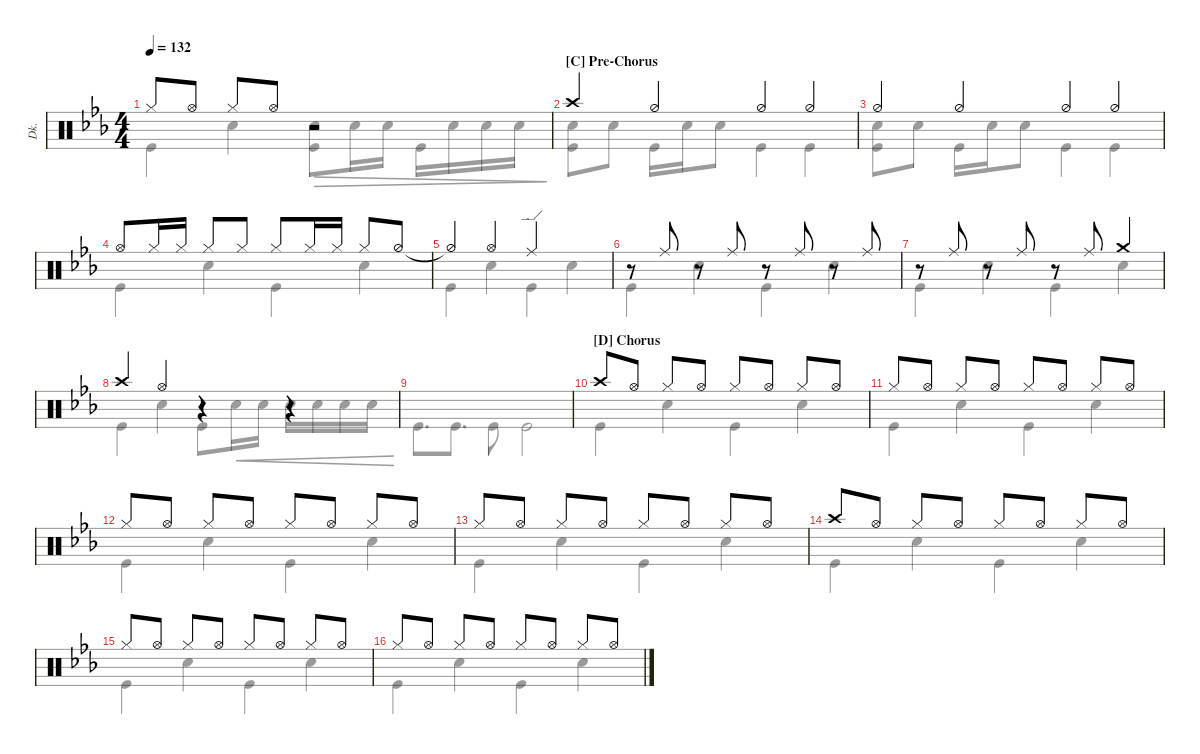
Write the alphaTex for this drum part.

\defaultSystemsLayout 4
\hideDynamics
\bracketExtendMode nobrackets
\otherSystemsTrackNameOrientation horizontal
\track ("Drumkit" "Dk.") {instrument percussion}
\staff {score}
\articulation defaults
\voice
\ts (4 4)
\tempo 132
\clef neutral
\ks eb "Hi-Hat (closed)".8{dy mf} "Hi-Hat (open)".8 "Hi-Hat (closed)".8 "Hi-Hat (open)".8
r.2 |
\section ("C" "Pre-Chorus")
"Crash high (hit)".4{dy f} "Hi-Hat (half)".4{dy mf} "Hi-Hat (half)".4 "Hi-Hat (half)".4 |
"Hi-Hat (half)".4 "Hi-Hat (half)".4 "Hi-Hat (half)".4 "Hi-Hat (half)".4 |
"Hi-Hat (open)".8 "Hi-Hat (closed)".16 "Hi-Hat (closed)".16 "Hi-Hat (closed)".8 "Hi-Hat (closed)".8 "Hi-Hat (closed)".8 "Hi-Hat (closed)".16 "Hi-Hat (closed)".16 "Hi-Hat (closed)".8 "Hi-Hat (half)".8 |
"Hi-Hat (half)"{t}.4 "Hi-Hat (open)".4 "Ride (edge)".2 |
r.8 "Ride (middle)".8{dy f} r.8 "Ride (middle)".8 r.8 "Ride (middle)".8 r.8 "Ride (middle)".8 |
r.8 "Ride (middle)".8 r.8 "Ride (middle)".8 r.8 "Ride (middle)".8 "Crash medium (hit)".4{dy mf} |
"Crash high (hit)".4 "Hi-Hat (open)".4 r.4 r.4 |
|
\section ("D" "Chorus")
"Crash high (hit)".8 "Hi-Hat (open)".8 "Hi-Hat (closed)".8 "Hi-Hat (open)".8 "Hi-Hat (closed)".8 "Hi-Hat (open)".8 "Hi-Hat (closed)".8 "Hi-Hat (open)".8 |
"Hi-Hat (closed)".8 "Hi-Hat (open)".8 "Hi-Hat (closed)".8 "Hi-Hat (open)".8 "Hi-Hat (closed)".8 "Hi-Hat (open)".8 "Hi-Hat (closed)".8 "Hi-Hat (open)".8 |
"Hi-Hat (closed)".8 "Hi-Hat (open)".8 "Hi-Hat (closed)".8 "Hi-Hat (open)".8 "Hi-Hat (closed)".8 "Hi-Hat (open)".8 "Hi-Hat (closed)".8 "Hi-Hat (open)".8 |
"Hi-Hat (closed)".8 "Hi-Hat (open)".8 "Hi-Hat (closed)".8 "Hi-Hat (open)".8 "Hi-Hat (closed)".8 "Hi-Hat (open)".8 "Hi-Hat (closed)".8 "Hi-Hat (open)".8 |
"Crash high (hit)".8 "Hi-Hat (open)".8 "Hi-Hat (closed)".8 "Hi-Hat (open)".8 "Hi-Hat (closed)".8 "Hi-Hat (open)".8 "Hi-Hat (closed)".8 "Hi-Hat (open)".8 |
"Hi-Hat (closed)".8 "Hi-Hat (open)".8 "Hi-Hat (closed)".8 "Hi-Hat (open)".8 "Hi-Hat (closed)".8 "Hi-Hat (open)".8 "Hi-Hat (closed)".8 "Hi-Hat (open)".8 |
"Hi-Hat (closed)".8 "Hi-Hat (open)".8 "Hi-Hat (closed)".8 "Hi-Hat (open)".8 "Hi-Hat (closed)".8 "Hi-Hat (open)".8 "Hi-Hat (closed)".8 "Hi-Hat (open)".8
\voice
\clef neutral
\ottava regular
\simile none
\ks eb "Kick (hit)".4{dy mf} "Snare (hit) 2".4
("Kick (hit)" "Snare (hit) 2").8{dec dy mp} "Snare (hit) 2".16{dec} "Snare (hit) 2".16{dec} "Kick (hit)".16{dec} "Snare (hit) 2".16{dec} "Snare (hit) 2".16{dec} "Snare (hit) 2".16{dec dy pp} |
("Kick (hit)" "Snare (hit) 2").8{dy mf} "Snare (hit) 2".8 "Kick (hit)".16 "Snare (hit) 2".16 "Snare (hit) 2".8 "Kick (hit)".4 "Kick (hit)".4 |
("Kick (hit)" "Snare (hit) 2").8 "Snare (hit) 2".8 "Kick (hit)".16 "Snare (hit) 2".16 "Snare (hit) 2".8 "Kick (hit)".4 "Kick (hit)".4 |
"Kick (hit)".4 "Snare (hit) 2".4 "Kick (hit)".4 "Snare (hit) 2".4 |
"Kick (hit)".4 "Snare (hit) 2".4 "Kick (hit)".4 "Snare (hit) 2".4 |
"Kick (hit)".4 "Snare (hit) 2".4 "Kick (hit)".4 "Snare (hit) 2".4 |
"Kick (hit)".4 "Snare (hit) 2".4 "Kick (hit)".4 "Snare (hit) 2".4 |
"Kick (hit)".4 "Snare (hit) 2".4 "Kick (hit)".8 "Snare (hit) 2".16{cre} "Snare (hit) 2".16{cre} "Snare (hit) 2".16{cre} "Snare (hit) 2".16{cre} "Snare (hit) 2".16{cre} "Snare (hit) 2".16{cre} |
"Kick (hit)".8{d} "Kick (hit)".8{d} "Kick (hit)".8 "Kick (hit)".2 |
"Kick (hit)".4 "Snare (hit) 2".4 "Kick (hit)".4 "Snare (hit) 2".4 |
"Kick (hit)".4 "Snare (hit) 2".4 "Kick (hit)".4 "Snare (hit) 2".4 |
"Kick (hit)".4 "Snare (hit) 2".4 "Kick (hit)".4 "Snare (hit) 2".4 |
"Kick (hit)".4 "Snare (hit) 2".4 "Kick (hit)".4 "Snare (hit) 2".4 |
"Kick (hit)".4 "Snare (hit) 2".4 "Kick (hit)".4 "Snare (hit) 2".4 |
"Kick (hit)".4 "Snare (hit) 2".4 "Kick (hit)".4 "Snare (hit) 2".4 |
"Kick (hit)".4 "Snare (hit) 2".4 "Kick (hit)".4 "Snare (hit) 2".4
